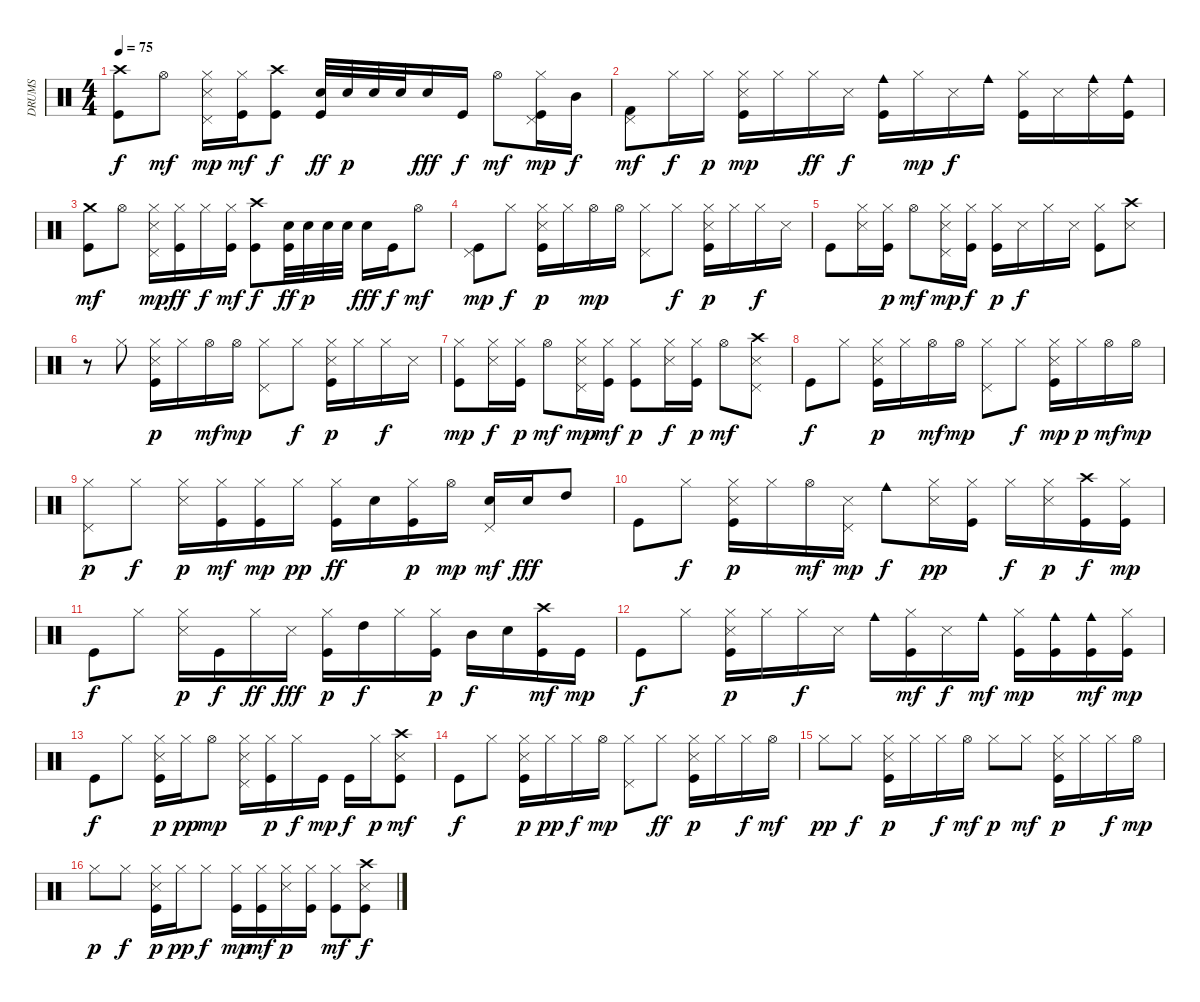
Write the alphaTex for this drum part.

\track ("DRUMS" "DRUMS") {instrument percussion}
\staff {score}
\articulation defaults
\ts (4 4)
\tempo 75
\clef neutral
\ks c
("Crash high (hit)" "Kick (hit)").8{dy f} "Hi-Hat (open)".8{dy mf} ("Hi-Hat (closed)" "Snare (side stick) 3" "Pedal Hi-Hat (hit)").16{dy mp} ("Hi-Hat (closed)" "Kick (hit)").16{dy mf} ("Crash high (hit)" "Kick (hit)").8{dy f} ("Electric Snare (hit)" "Kick (hit)").32{dy ff} "Electric Snare (hit)".32{dy p} "Electric Snare (hit)".32 "Electric Snare (hit)".32 "Electric Snare (hit)".16{dy fff} "Kick (hit)".16{dy f} "Hi-Hat (open)".8{dy mf} ("Hi-Hat (closed)" "Pedal Hi-Hat (hit)" "Kick (hit)").16{dy mp} "Mid Tom (hit)".16{dy f} |
("Pedal Hi-Hat (hit)" "Kick (hit) 2").8{dy mf} "Hi-Hat (closed)".16{dy f} "Hi-Hat (closed)".16{dy p} ("Hi-Hat (closed)" "Snare (side stick) 3" "Kick (hit)").16{dy mp} "Hi-Hat (closed)".16 "Hi-Hat (closed)".16{dy ff} "Snare (side stick) 3".16{dy f} ("Cowbell medium (hit)" "Kick (hit)").16 "Hi-Hat (closed)".16{dy mp} "Snare (side stick) 3".16{dy f} "Cowbell medium (hit)".16 ("Hi-Hat (closed)" "Kick (hit)").16 "Snare (side stick) 3".16 ("Cowbell medium (hit)" "Snare (side stick) 3").16 ("Cowbell medium (hit)" "Kick (hit)").16 |
("Crash medium (hit)" "Kick (hit)").8{dy mf} "Hi-Hat (open)".8 ("Hi-Hat (closed)" "Snare (side stick) 3" "Pedal Hi-Hat (hit)").16{dy mp} ("Hi-Hat (closed)" "Kick (hit)").16{dy ff} "Hi-Hat (closed)".16{dy f} ("Hi-Hat (closed)" "Kick (hit)").16{dy mf} ("Crash high (hit)" "Kick (hit)").8{dy f} ("Electric Snare (hit)" "Kick (hit)").32{dy ff} "Electric Snare (hit)".32{dy p} "Electric Snare (hit)".32 "Electric Snare (hit)".32 "Electric Snare (hit)".16{dy fff} "Kick (hit)".16{dy f} "Hi-Hat (open)".8{dy mf} |
("Pedal Hi-Hat (hit)" "Kick (hit)").8{dy mp} "Hi-Hat (closed)".8{dy f} ("Hi-Hat (closed)" "Snare (side stick) 3" "Kick (hit)").16{dy p} "Hi-Hat (closed)".16 "Hi-Hat (open)".16{dy mp} "Hi-Hat (open)".16 ("Hi-Hat (closed)" "Pedal Hi-Hat (hit)").8 "Hi-Hat (closed)".8{dy f} ("Hi-Hat (closed)" "Snare (side stick) 3" "Kick (hit)").16{dy p} "Hi-Hat (closed)".16 "Hi-Hat (closed)".16{dy f} "Snare (side stick) 3".16 |
"Kick (hit)".8 ("Hi-Hat (closed)" "Snare (side stick) 3").16 ("Hi-Hat (closed)" "Kick (hit)").16{dy p} "Hi-Hat (open)".8{dy mf} ("Hi-Hat (closed)" "Snare (side stick) 3" "Pedal Hi-Hat (hit)").16{dy mp} ("Hi-Hat (closed)" "Kick (hit)").16{dy f} ("Hi-Hat (closed)" "Kick (hit)").16{dy p} "Snare (side stick) 3".16{dy f} "Hi-Hat (closed)".16 "Snare (side stick) 3".16 ("Hi-Hat (closed)" "Kick (hit)").8 ("Crash high (hit)" "Snare (side stick) 3").8 |
r.8 "Hi-Hat (closed)".8 ("Hi-Hat (closed)" "Snare (side stick) 3" "Kick (hit)").16{dy p} "Hi-Hat (closed)".16 "Hi-Hat (open)".16{dy mf} "Hi-Hat (open)".16{dy mp} ("Hi-Hat (closed)" "Pedal Hi-Hat (hit)").8 "Hi-Hat (closed)".8{dy f} ("Hi-Hat (closed)" "Snare (side stick) 3" "Kick (hit)").16{dy p} "Hi-Hat (closed)".16 "Hi-Hat (closed)".16{dy f} "Snare (side stick) 3".16 |
("Hi-Hat (closed)" "Kick (hit)").8{dy mp} ("Hi-Hat (closed)" "Snare (side stick) 3").16{dy f} ("Hi-Hat (closed)" "Kick (hit)").16{dy p} "Hi-Hat (open)".8{dy mf} ("Hi-Hat (closed)" "Snare (side stick) 3" "Pedal Hi-Hat (hit)").16{dy mp} ("Hi-Hat (closed)" "Kick (hit)").16{dy mf} ("Hi-Hat (closed)" "Kick (hit)").8{dy p} ("Hi-Hat (closed)" "Snare (side stick) 3").16{dy f} ("Hi-Hat (closed)" "Kick (hit)").16{dy p} "Hi-Hat (open)".8{dy mf} ("Crash high (hit)" "Snare (side stick) 3" "Pedal Hi-Hat (hit)").8 |
"Kick (hit)".8{dy f} "Hi-Hat (closed)".8 ("Hi-Hat (closed)" "Snare (side stick) 3" "Kick (hit)").16{dy p} "Hi-Hat (closed)".16 "Hi-Hat (open)".16{dy mf} "Hi-Hat (open)".16{dy mp} ("Hi-Hat (closed)" "Pedal Hi-Hat (hit)").8 "Hi-Hat (closed)".8{dy f} ("Hi-Hat (closed)" "Snare (side stick) 3" "Kick (hit)").16{dy mp} "Hi-Hat (closed)".16{dy p} "Hi-Hat (open)".16{dy mf} "Hi-Hat (open)".16{dy mp} |
("Hi-Hat (closed)" "Pedal Hi-Hat (hit)").8{dy p} "Hi-Hat (closed)".8{dy f} ("Hi-Hat (closed)" "Snare (side stick) 3").16{dy p} ("Hi-Hat (closed)" "Kick (hit)").16{dy mf} ("Hi-Hat (closed)" "Kick (hit)").16{dy mp} "Hi-Hat (closed)".16{dy pp} ("Hi-Hat (closed)" "Kick (hit)").16{dy ff} "Electric Snare (hit)".16 ("Hi-Hat (closed)" "Kick (hit)").16{dy p} "Hi-Hat (open)".16{dy mp} ("Electric Snare (hit)" "Pedal Hi-Hat (hit)").16{dy mf} "Electric Snare (hit)".16{dy fff} "High Tom (hit)".8 |
"Kick (hit)".8 "Hi-Hat (closed)".8{dy f} ("Hi-Hat (closed)" "Snare (side stick) 3" "Kick (hit)").16{dy p} "Hi-Hat (closed)".16 "Hi-Hat (open)".16{dy mf} ("Snare (side stick) 3" "Pedal Hi-Hat (hit)").16{dy mp} "Cowbell medium (hit)".8{dy f} ("Hi-Hat (closed)" "Snare (side stick) 3").16{dy pp} ("Hi-Hat (closed)" "Kick (hit)").16 "Hi-Hat (closed)".16{dy f} ("Hi-Hat (closed)" "Snare (side stick) 3").16{dy p} ("Crash high (hit)" "Kick (hit)").16{dy f} ("Hi-Hat (closed)" "Kick (hit)").16{dy mp} |
"Kick (hit)".8{dy f} "Hi-Hat (closed)".8 ("Hi-Hat (closed)" "Snare (side stick) 3").16{dy p} "Kick (hit)".16{dy f} "Hi-Hat (closed)".16{dy ff} "Snare (side stick) 3".16{dy fff} ("Hi-Hat (closed)" "Kick (hit)").16{dy p} "High Tom (hit)".16{dy f} "Hi-Hat (closed)".16 ("Hi-Hat (closed)" "Kick (hit)").16{dy p} "Mid Tom (hit)".16{dy f} "Electric Snare (hit)".16 ("Crash high (hit)" "Kick (hit)").16{dy mf} "Kick (hit)".16{dy mp} |
"Kick (hit)".8{dy f} "Hi-Hat (closed)".8 ("Hi-Hat (closed)" "Snare (side stick) 3" "Kick (hit)").16{dy p} "Hi-Hat (closed)".16 "Hi-Hat (closed)".16{dy f} "Snare (side stick) 3".16 "Cowbell medium (hit)".16 ("Hi-Hat (closed)" "Kick (hit)").16{dy mf} "Snare (side stick) 3".16{dy f} "Cowbell medium (hit)".16{dy mf} ("Hi-Hat (closed)" "Kick (hit)").16{dy mp} ("Cowbell medium (hit)" "Kick (hit)").16 ("Cowbell medium (hit)" "Kick (hit)").16{dy mf} ("Hi-Hat (closed)" "Kick (hit)").16{dy mp} |
"Kick (hit)".8{dy f} "Hi-Hat (closed)".8 ("Hi-Hat (closed)" "Snare (side stick) 3" "Kick (hit)").16{dy p} "Hi-Hat (closed)".16{dy pp} "Hi-Hat (open)".8{dy mp} ("Hi-Hat (closed)" "Snare (side stick) 3" "Pedal Hi-Hat (hit)").16 ("Hi-Hat (closed)" "Kick (hit)").16{dy p} "Hi-Hat (closed)".16{dy f} "Kick (hit)".16{dy mp} "Kick (hit)".16{dy f} "Hi-Hat (closed)".16{dy p} ("Crash high (hit)" "Snare (side stick) 3" "Kick (hit)").8{dy mf} |
"Kick (hit)".8{dy f} "Hi-Hat (closed)".8 ("Hi-Hat (closed)" "Snare (side stick) 3" "Kick (hit)").16{dy p} "Hi-Hat (closed)".16{dy pp} "Hi-Hat (closed)".16{dy f} "Hi-Hat (open)".16{dy mp} ("Hi-Hat (closed)" "Pedal Hi-Hat (hit)").8 "Hi-Hat (closed)".8{dy ff} ("Hi-Hat (closed)" "Snare (side stick) 3" "Kick (hit)").16{dy p} "Hi-Hat (closed)".16 "Hi-Hat (closed)".16{dy f} "Hi-Hat (open)".16{dy mf} |
"Hi-Hat (closed)".8{dy pp} "Hi-Hat (closed)".8{dy f} ("Hi-Hat (closed)" "Snare (side stick) 3" "Kick (hit)").16{dy p} "Hi-Hat (closed)".16 "Hi-Hat (closed)".16{dy f} "Hi-Hat (open)".16{dy mf} "Hi-Hat (closed)".8{dy p} "Hi-Hat (closed)".8{dy mf} ("Hi-Hat (closed)" "Snare (side stick) 3" "Kick (hit)").16{dy p} "Hi-Hat (closed)".16 "Hi-Hat (closed)".16{dy f} "Hi-Hat (open)".16{dy mp} |
"Hi-Hat (closed)".8{dy p} "Hi-Hat (closed)".8{dy f} ("Hi-Hat (closed)" "Snare (side stick) 3" "Kick (hit)").16{dy p} "Hi-Hat (closed)".16{dy pp} "Hi-Hat (closed)".8{dy f} ("Hi-Hat (closed)" "Kick (hit)").16{dy mp} ("Hi-Hat (closed)" "Kick (hit)").16{dy mf} ("Hi-Hat (closed)" "Snare (side stick) 3").16{dy p} ("Hi-Hat (closed)" "Kick (hit)").16 ("Hi-Hat (closed)" "Kick (hit)").8{dy mf} ("Crash high (hit)" "Snare (side stick) 3" "Kick (hit)").8{dy f}
